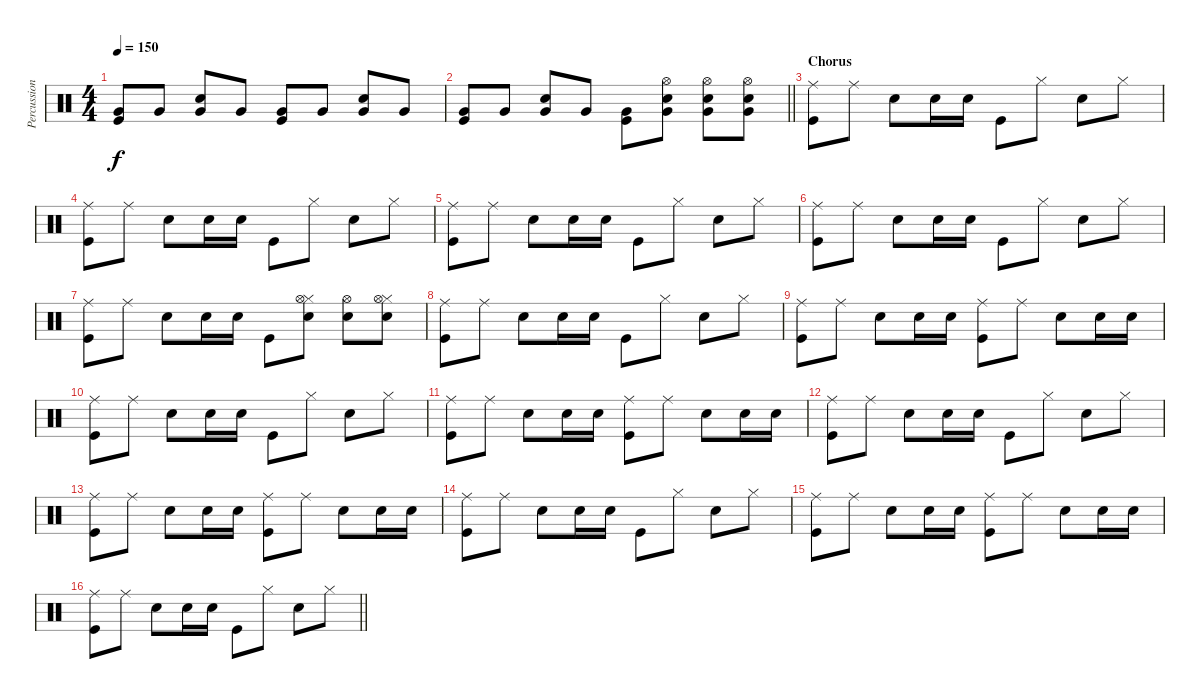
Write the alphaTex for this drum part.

\track ("Percussion" "Percussion") {instrument percussion}
\staff {score}
\articulation defaults
\ts (4 4)
\tempo 150
\clef neutral
\ks c
("Very Low Tom (hit)" "Kick (hit)").8{dy f} "Very Low Tom (hit)".8 ("Very Low Tom (hit)" "Snare (hit) 2").8 "Very Low Tom (hit)".8 ("Very Low Tom (hit)" "Kick (hit)").8 "Very Low Tom (hit)".8 ("Very Low Tom (hit)" "Snare (hit) 2").8 "Very Low Tom (hit)".8 |
\barLineRight lightlight
("Very Low Tom (hit)" "Kick (hit)").8 "Very Low Tom (hit)".8 ("Very Low Tom (hit)" "Snare (hit) 2").8 "Very Low Tom (hit)".8 ("Very Low Tom (hit)" "Kick (hit)").8 ("Very Low Tom (hit)" "Snare (hit) 2" "Hi-Hat (open)").8 ("Very Low Tom (hit)" "Snare (hit) 2" "Hi-Hat (open)").8 ("Very Low Tom (hit)" "Snare (hit) 2" "Hi-Hat (open)").8 |
\section ("" "Chorus")
("Ride (middle)" "Kick (hit)").8 "Ride (middle)".8 "Snare (hit) 2".8 "Snare (hit) 2".16 "Snare (hit) 2".16 "Kick (hit)".8 "Hi-Hat (closed)".8 "Snare (hit) 2".8 "Hi-Hat (closed)".8 |
("Ride (middle)" "Kick (hit)").8 "Ride (middle)".8 "Snare (hit) 2".8 "Snare (hit) 2".16 "Snare (hit) 2".16 "Kick (hit)".8 "Hi-Hat (closed)".8 "Snare (hit) 2".8 "Hi-Hat (closed)".8 |
("Ride (middle)" "Kick (hit)").8 "Ride (middle)".8 "Snare (hit) 2".8 "Snare (hit) 2".16 "Snare (hit) 2".16 "Kick (hit)".8 "Hi-Hat (closed)".8 "Snare (hit) 2".8 "Hi-Hat (closed)".8 |
("Ride (middle)" "Kick (hit)").8 "Ride (middle)".8 "Snare (hit) 2".8 "Snare (hit) 2".16 "Snare (hit) 2".16 "Kick (hit)".8 "Hi-Hat (closed)".8 "Snare (hit) 2".8 "Hi-Hat (closed)".8 |
("Ride (middle)" "Kick (hit)").8 "Ride (middle)".8 "Snare (hit) 2".8 "Snare (hit) 2".16 "Snare (hit) 2".16 "Kick (hit)".8 ("Hi-Hat (closed)" "Snare (hit) 2" "Hi-Hat (open)").8 ("Snare (hit) 2" "Hi-Hat (open)").8 ("Hi-Hat (closed)" "Snare (hit) 2" "Hi-Hat (open)").8 |
("Ride (middle)" "Kick (hit)").8 "Ride (middle)".8 "Snare (hit) 2".8 "Snare (hit) 2".16 "Snare (hit) 2".16 "Kick (hit)".8 "Hi-Hat (closed)".8 "Snare (hit) 2".8 "Hi-Hat (closed)".8 |
("Ride (middle)" "Kick (hit)").8 "Ride (middle)".8 "Snare (hit) 2".8 "Snare (hit) 2".16 "Snare (hit) 2".16 ("Ride (middle)" "Kick (hit)").8 "Ride (middle)".8 "Snare (hit) 2".8 "Snare (hit) 2".16 "Snare (hit) 2".16 |
("Ride (middle)" "Kick (hit)").8 "Ride (middle)".8 "Snare (hit) 2".8 "Snare (hit) 2".16 "Snare (hit) 2".16 "Kick (hit)".8 "Hi-Hat (closed)".8 "Snare (hit) 2".8 "Hi-Hat (closed)".8 |
("Ride (middle)" "Kick (hit)").8 "Ride (middle)".8 "Snare (hit) 2".8 "Snare (hit) 2".16 "Snare (hit) 2".16 ("Ride (middle)" "Kick (hit)").8 "Ride (middle)".8 "Snare (hit) 2".8 "Snare (hit) 2".16 "Snare (hit) 2".16 |
("Ride (middle)" "Kick (hit)").8 "Ride (middle)".8 "Snare (hit) 2".8 "Snare (hit) 2".16 "Snare (hit) 2".16 "Kick (hit)".8 "Hi-Hat (closed)".8 "Snare (hit) 2".8 "Hi-Hat (closed)".8 |
("Ride (middle)" "Kick (hit)").8 "Ride (middle)".8 "Snare (hit) 2".8 "Snare (hit) 2".16 "Snare (hit) 2".16 ("Ride (middle)" "Kick (hit)").8 "Ride (middle)".8 "Snare (hit) 2".8 "Snare (hit) 2".16 "Snare (hit) 2".16 |
("Ride (middle)" "Kick (hit)").8 "Ride (middle)".8 "Snare (hit) 2".8 "Snare (hit) 2".16 "Snare (hit) 2".16 "Kick (hit)".8 "Hi-Hat (closed)".8 "Snare (hit) 2".8 "Hi-Hat (closed)".8 |
("Ride (middle)" "Kick (hit)").8 "Ride (middle)".8 "Snare (hit) 2".8 "Snare (hit) 2".16 "Snare (hit) 2".16 ("Ride (middle)" "Kick (hit)").8 "Ride (middle)".8 "Snare (hit) 2".8 "Snare (hit) 2".16 "Snare (hit) 2".16 |
\barLineRight lightlight
("Ride (middle)" "Kick (hit)").8 "Ride (middle)".8 "Snare (hit) 2".8 "Snare (hit) 2".16 "Snare (hit) 2".16 "Kick (hit)".8 "Hi-Hat (closed)".8 "Snare (hit) 2".8 "Hi-Hat (closed)".8
